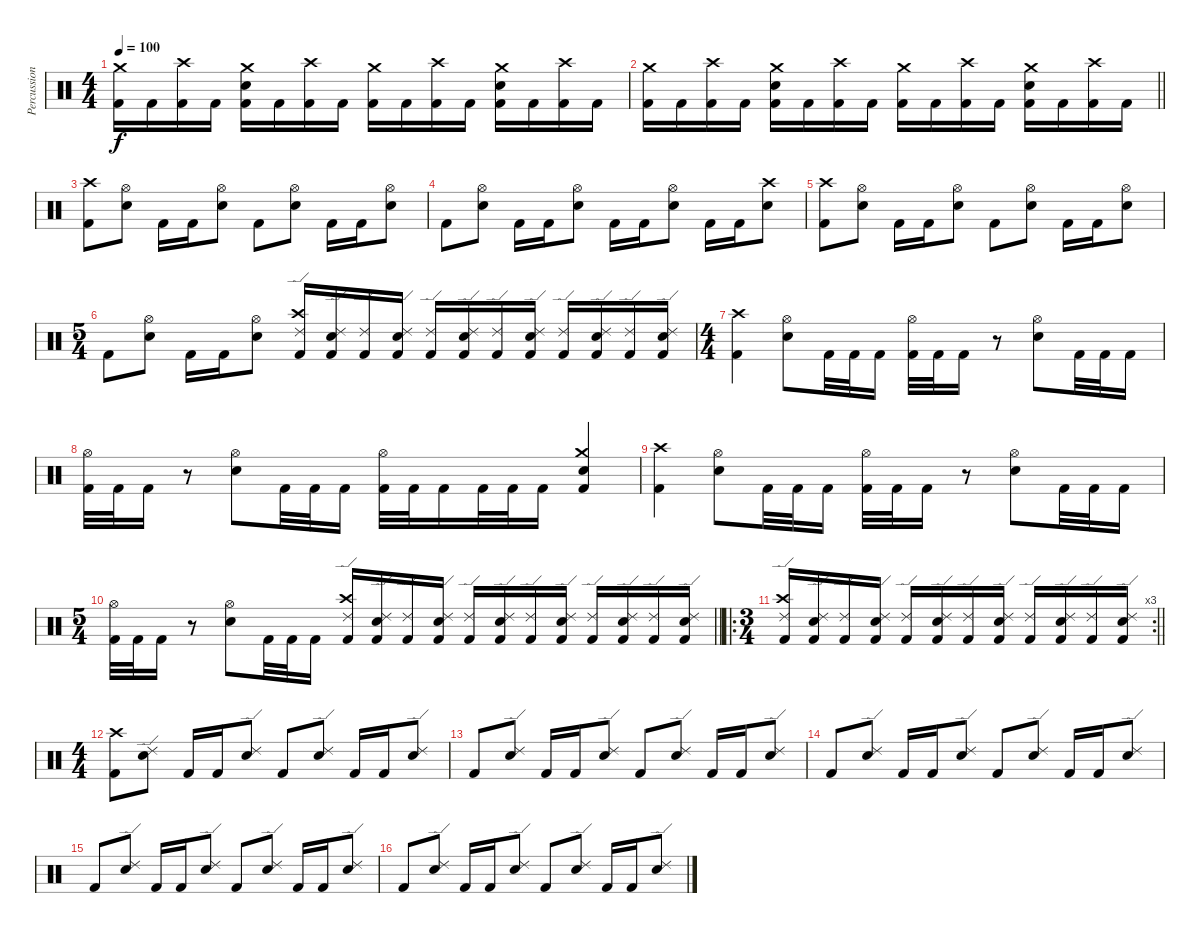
\track ("Percussion" "Percussion") {instrument percussion}
\staff {score}
\articulation defaults
\ts (4 4)
\tempo 100
\clef neutral
\ks c
("Kick (hit) 2" "Crash medium (hit)").16{dy f} "Kick (hit) 2".16 ("Kick (hit) 2" "Crash high (hit)").16 "Kick (hit) 2".16 ("Kick (hit) 2" "Snare (hit) 2" "Crash medium (hit)").16 "Kick (hit) 2".16 ("Kick (hit) 2" "Crash high (hit)").16 "Kick (hit) 2".16 ("Kick (hit) 2" "Crash medium (hit)").16 "Kick (hit) 2".16 ("Kick (hit) 2" "Crash high (hit)").16 "Kick (hit) 2".16 ("Kick (hit) 2" "Snare (hit) 2" "Crash medium (hit)").16 "Kick (hit) 2".16 ("Kick (hit) 2" "Crash high (hit)").16 "Kick (hit) 2".16 |
\barLineRight lightlight
("Kick (hit) 2" "Crash medium (hit)").16 "Kick (hit) 2".16 ("Kick (hit) 2" "Crash high (hit)").16 "Kick (hit) 2".16 ("Kick (hit) 2" "Snare (hit) 2" "Crash medium (hit)").16 "Kick (hit) 2".16 ("Kick (hit) 2" "Crash high (hit)").16 "Kick (hit) 2".16 ("Kick (hit) 2" "Crash medium (hit)").16 "Kick (hit) 2".16 ("Kick (hit) 2" "Crash high (hit)").16 "Kick (hit) 2".16 ("Kick (hit) 2" "Snare (hit) 2" "Crash medium (hit)").16 "Kick (hit) 2".16 ("Kick (hit) 2" "Crash high (hit)").16 "Kick (hit) 2".16 |
\section ("" "")
("Crash high (hit)" "Kick (hit) 2").8 ("Hi-Hat (open)" "Snare (hit) 2").8 "Kick (hit) 2".16 "Kick (hit) 2".16 ("Hi-Hat (open)" "Snare (hit) 2").8 "Kick (hit) 2".8 ("Hi-Hat (open)" "Snare (hit) 2").8 "Kick (hit) 2".16 "Kick (hit) 2".16 ("Hi-Hat (open)" "Snare (hit) 2").8 |
"Kick (hit) 2".8 ("Hi-Hat (open)" "Snare (hit) 2").8 "Kick (hit) 2".16 "Kick (hit) 2".16 ("Hi-Hat (open)" "Snare (hit) 2").8 "Kick (hit) 2".16 "Kick (hit) 2".16 ("Hi-Hat (open)" "Snare (hit) 2").8 "Kick (hit) 2".16 "Kick (hit) 2".16 ("Crash high (hit)" "Snare (hit) 2").8 |
("Crash high (hit)" "Kick (hit) 2").8 ("Hi-Hat (open)" "Snare (hit) 2").8 "Kick (hit) 2".16 "Kick (hit) 2".16 ("Hi-Hat (open)" "Snare (hit) 2").8 "Kick (hit) 2".8 ("Hi-Hat (open)" "Snare (hit) 2").8 "Kick (hit) 2".16 "Kick (hit) 2".16 ("Hi-Hat (open)" "Snare (hit) 2").8 |
\ts (5 4)
"Kick (hit) 2".8 ("Hi-Hat (open)" "Snare (hit) 2").8 "Kick (hit) 2".16 "Kick (hit) 2".16 ("Hi-Hat (open)" "Snare (hit) 2").8 ("Ride (edge) 2" "Crash high (hit)" "Kick (hit) 2").16 ("Ride (edge) 2" "Snare (hit) 2" "Kick (hit) 2").16 ("Ride (edge) 2" "Kick (hit) 2").16 ("Ride (edge) 2" "Snare (hit) 2" "Kick (hit) 2").16 ("Ride (edge) 2" "Kick (hit) 2").16 ("Ride (edge) 2" "Snare (hit) 2" "Kick (hit) 2").16 ("Ride (edge) 2" "Kick (hit) 2").16 ("Ride (edge) 2" "Snare (hit) 2" "Kick (hit) 2").16 ("Ride (edge) 2" "Kick (hit) 2").16 ("Ride (edge) 2" "Snare (hit) 2" "Kick (hit) 2").16 ("Ride (edge) 2" "Kick (hit) 2").16 ("Ride (edge) 2" "Snare (hit) 2" "Kick (hit) 2").16 |
\ts (4 4)
("Crash high (hit)" "Kick (hit) 2").4 ("Hi-Hat (open)" "Snare (hit) 2").8 "Kick (hit) 2".32 "Kick (hit) 2".32 "Kick (hit) 2".16 ("Hi-Hat (open)" "Kick (hit) 2").32 "Kick (hit) 2".32 "Kick (hit) 2".16 r.8 ("Hi-Hat (open)" "Snare (hit) 2").8 "Kick (hit) 2".32 "Kick (hit) 2".32 "Kick (hit) 2".16 |
("Hi-Hat (open)" "Kick (hit) 2").32 "Kick (hit) 2".32 "Kick (hit) 2".16 r.8 ("Hi-Hat (open)" "Snare (hit) 2").8 "Kick (hit) 2".32 "Kick (hit) 2".32 "Kick (hit) 2".16 ("Hi-Hat (open)" "Kick (hit) 2").32 "Kick (hit) 2".32 "Kick (hit) 2".16 "Kick (hit) 2".32 "Kick (hit) 2".32 "Kick (hit) 2".16 ("Crash medium (hit)" "Snare (hit) 2" "Kick (hit) 2").4 |
("Crash high (hit)" "Kick (hit) 2").4 ("Hi-Hat (open)" "Snare (hit) 2").8 "Kick (hit) 2".32 "Kick (hit) 2".32 "Kick (hit) 2".16 ("Hi-Hat (open)" "Kick (hit) 2").32 "Kick (hit) 2".32 "Kick (hit) 2".16 r.8 ("Hi-Hat (open)" "Snare (hit) 2").8 "Kick (hit) 2".32 "Kick (hit) 2".32 "Kick (hit) 2".16 |
\ts (5 4)
\barLineRight lightlight
("Hi-Hat (open)" "Kick (hit) 2").32 "Kick (hit) 2".32 "Kick (hit) 2".16 r.8 ("Hi-Hat (open)" "Snare (hit) 2").8 "Kick (hit) 2".32 "Kick (hit) 2".32 "Kick (hit) 2".16 ("Ride (edge) 2" "Crash high (hit)" "Kick (hit) 2").16 ("Ride (edge) 2" "Snare (hit) 2" "Kick (hit) 2").16 ("Ride (edge) 2" "Kick (hit) 2").16 ("Ride (edge) 2" "Snare (hit) 2" "Kick (hit) 2").16 ("Ride (edge) 2" "Kick (hit) 2").16 ("Ride (edge) 2" "Snare (hit) 2" "Kick (hit) 2").16 ("Ride (edge) 2" "Kick (hit) 2").16 ("Ride (edge) 2" "Snare (hit) 2" "Kick (hit) 2").16 ("Ride (edge) 2" "Kick (hit) 2").16 ("Ride (edge) 2" "Snare (hit) 2" "Kick (hit) 2").16 ("Ride (edge) 2" "Kick (hit) 2").16 ("Ride (edge) 2" "Snare (hit) 2" "Kick (hit) 2").16 |
\ro
\rc 3
\ts (3 4)
\section ("" "")
\barLineRight lightlight
("Ride (edge) 2" "Crash high (hit)" "Kick (hit) 2").16 ("Ride (edge) 2" "Snare (hit) 2" "Kick (hit) 2").16 ("Ride (edge) 2" "Kick (hit) 2").16 ("Ride (edge) 2" "Snare (hit) 2" "Kick (hit) 2").16 ("Ride (edge) 2" "Kick (hit) 2").16 ("Ride (edge) 2" "Snare (hit) 2" "Kick (hit) 2").16 ("Ride (edge) 2" "Kick (hit) 2").16 ("Ride (edge) 2" "Snare (hit) 2" "Kick (hit) 2").16 ("Ride (edge) 2" "Kick (hit) 2").16 ("Ride (edge) 2" "Snare (hit) 2" "Kick (hit) 2").16 ("Ride (edge) 2" "Kick (hit) 2").16 ("Ride (edge) 2" "Snare (hit) 2" "Kick (hit) 2").16 |
\ts (4 4)
\section ("" "")
("Crash high (hit)" "Kick (hit) 2").8 ("Ride (edge) 2" "Snare (hit) 2").8 "Kick (hit) 2".16 "Kick (hit) 2".16 ("Ride (edge) 2" "Snare (hit) 2").8 "Kick (hit) 2".8 ("Ride (edge) 2" "Snare (hit) 2").8 "Kick (hit) 2".16 "Kick (hit) 2".16 ("Ride (edge) 2" "Snare (hit) 2").8 |
"Kick (hit) 2".8 ("Ride (edge) 2" "Snare (hit) 2").8 "Kick (hit) 2".16 "Kick (hit) 2".16 ("Ride (edge) 2" "Snare (hit) 2").8 "Kick (hit) 2".8 ("Ride (edge) 2" "Snare (hit) 2").8 "Kick (hit) 2".16 "Kick (hit) 2".16 ("Ride (edge) 2" "Snare (hit) 2").8 |
"Kick (hit) 2".8 ("Ride (edge) 2" "Snare (hit) 2").8 "Kick (hit) 2".16 "Kick (hit) 2".16 ("Ride (edge) 2" "Snare (hit) 2").8 "Kick (hit) 2".8 ("Ride (edge) 2" "Snare (hit) 2").8 "Kick (hit) 2".16 "Kick (hit) 2".16 ("Ride (edge) 2" "Snare (hit) 2").8 |
"Kick (hit) 2".8 ("Ride (edge) 2" "Snare (hit) 2").8 "Kick (hit) 2".16 "Kick (hit) 2".16 ("Ride (edge) 2" "Snare (hit) 2").8 "Kick (hit) 2".8 ("Ride (edge) 2" "Snare (hit) 2").8 "Kick (hit) 2".16 "Kick (hit) 2".16 ("Ride (edge) 2" "Snare (hit) 2").8 |
"Kick (hit) 2".8 ("Ride (edge) 2" "Snare (hit) 2").8 "Kick (hit) 2".16 "Kick (hit) 2".16 ("Ride (edge) 2" "Snare (hit) 2").8 "Kick (hit) 2".8 ("Ride (edge) 2" "Snare (hit) 2").8 "Kick (hit) 2".16 "Kick (hit) 2".16 ("Ride (edge) 2" "Snare (hit) 2").8
